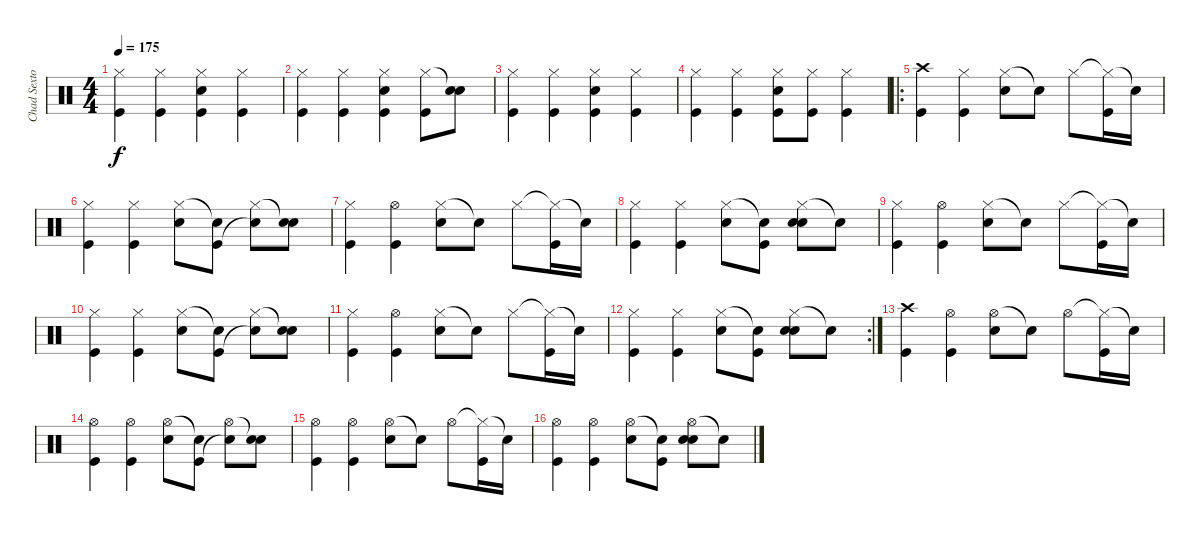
\track ("Chad Sexton" "Chad Sexto") {instrument percussion}
\staff {score}
\articulation defaults
\ts (4 4)
\tempo 175
\clef neutral
\ks c
("Hi-Hat (closed)" "Kick (hit)").4{dy f} ("Hi-Hat (closed)" "Kick (hit)").4 ("Hi-Hat (closed)" "Snare (hit) 2" "Kick (hit)").4 ("Hi-Hat (closed)" "Kick (hit)").4 |
("Hi-Hat (closed)" "Kick (hit)").4 ("Hi-Hat (closed)" "Kick (hit)").4 ("Hi-Hat (closed)" "Snare (hit) 2" "Kick (hit)").4 ("Hi-Hat (closed)" "Kick (hit)").8 ("Snare (hit)"{t} "Snare (hit) 2").8 |
("Hi-Hat (closed)" "Kick (hit)").4 ("Hi-Hat (closed)" "Kick (hit)").4 ("Hi-Hat (closed)" "Snare (hit) 2" "Kick (hit)").4 ("Hi-Hat (closed)" "Kick (hit)").4 |
("Hi-Hat (closed)" "Kick (hit)").4 ("Hi-Hat (closed)" "Kick (hit)").4 ("Hi-Hat (closed)" "Snare (hit) 2" "Kick (hit)").8 ("Hi-Hat (closed)" "Kick (hit)").8 ("Hi-Hat (closed)" "Kick (hit)").4 |
\ro
("Crash high (hit)" "Kick (hit)").4 ("Hi-Hat (closed)" "Kick (hit)").4 ("Hi-Hat (closed)" "Snare (hit) 2").8 "Snare (hit)"{t}.8 "Hi-Hat (closed)".8 ("Hi-Hat (closed)"{t} "Kick (hit)").16 "Snare (hit)"{t}.16 |
("Hi-Hat (closed)" "Kick (hit)").4 ("Hi-Hat (closed)" "Kick (hit)").4 ("Hi-Hat (closed)" "Snare (hit) 2").8 ("Snare (hit)"{t} "Kick (hit)").8 ("Hi-Hat (closed)" "Snare (hit)"{t}).8 ("Snare (hit)"{t} "Snare (hit) 2").8 |
("Hi-Hat (closed)" "Kick (hit)").4 ("Hi-Hat (open)" "Kick (hit)").4 ("Hi-Hat (closed)" "Snare (hit) 2").8 "Snare (hit)"{t}.8 "Hi-Hat (closed)".8 ("Hi-Hat (closed)"{t} "Kick (hit)").16 "Snare (hit)"{t}.16 |
("Hi-Hat (closed)" "Kick (hit)").4 ("Hi-Hat (closed)" "Kick (hit)").4 ("Hi-Hat (closed)" "Snare (hit) 2").8 ("Snare (hit)"{t} "Kick (hit)").8 ("Hi-Hat (closed)" "Snare (hit) 2" "Snare (hit)").8 "Snare (hit)"{t}.8 |
("Hi-Hat (closed)" "Kick (hit)").4 ("Hi-Hat (open)" "Kick (hit)").4 ("Hi-Hat (closed)" "Snare (hit) 2").8 "Snare (hit)"{t}.8 "Hi-Hat (closed)".8 ("Hi-Hat (closed)"{t} "Kick (hit)").16 "Snare (hit)"{t}.16 |
("Hi-Hat (closed)" "Kick (hit)").4 ("Hi-Hat (closed)" "Kick (hit)").4 ("Hi-Hat (closed)" "Snare (hit) 2").8 ("Snare (hit)"{t} "Kick (hit)").8 ("Hi-Hat (closed)" "Snare (hit)"{t}).8 ("Snare (hit)"{t} "Snare (hit) 2").8 |
("Hi-Hat (closed)" "Kick (hit)").4 ("Hi-Hat (open)" "Kick (hit)").4 ("Hi-Hat (closed)" "Snare (hit) 2").8 "Snare (hit)"{t}.8 "Hi-Hat (closed)".8 ("Hi-Hat (closed)"{t} "Kick (hit)").16 "Snare (hit)"{t}.16 |
\rc 2
("Hi-Hat (closed)" "Kick (hit)").4 ("Hi-Hat (closed)" "Kick (hit)").4 ("Hi-Hat (closed)" "Snare (hit) 2").8 ("Snare (hit)"{t} "Kick (hit)").8 ("Hi-Hat (closed)" "Snare (hit) 2" "Snare (hit)").8 "Snare (hit)"{t}.8 |
("Crash high (hit)" "Kick (hit)").4 ("Hi-Hat (open)" "Kick (hit)").4 ("Hi-Hat (open)" "Snare (hit) 2").8 "Snare (hit)"{t}.8 "Hi-Hat (open)".8 ("Hi-Hat (closed)"{t} "Kick (hit)").16 "Snare (hit)"{t}.16 |
("Hi-Hat (open)" "Kick (hit)").4 ("Hi-Hat (open)" "Kick (hit)").4 ("Hi-Hat (open)" "Snare (hit) 2").8 ("Snare (hit)"{t} "Kick (hit)").8 ("Hi-Hat (open)" "Snare (hit)"{t}).8 ("Snare (hit)"{t} "Snare (hit) 2").8 |
("Hi-Hat (open)" "Kick (hit)").4 ("Hi-Hat (open)" "Kick (hit)").4 ("Hi-Hat (open)" "Snare (hit) 2").8 "Snare (hit)"{t}.8 "Hi-Hat (open)".8 ("Hi-Hat (closed)"{t} "Kick (hit)").16 "Snare (hit)"{t}.16 |
("Hi-Hat (open)" "Kick (hit)").4 ("Hi-Hat (open)" "Kick (hit)").4 ("Hi-Hat (open)" "Snare (hit) 2").8 ("Snare (hit)"{t} "Kick (hit)").8 ("Hi-Hat (open)" "Snare (hit) 2" "Snare (hit)").8 "Snare (hit)"{t}.8
